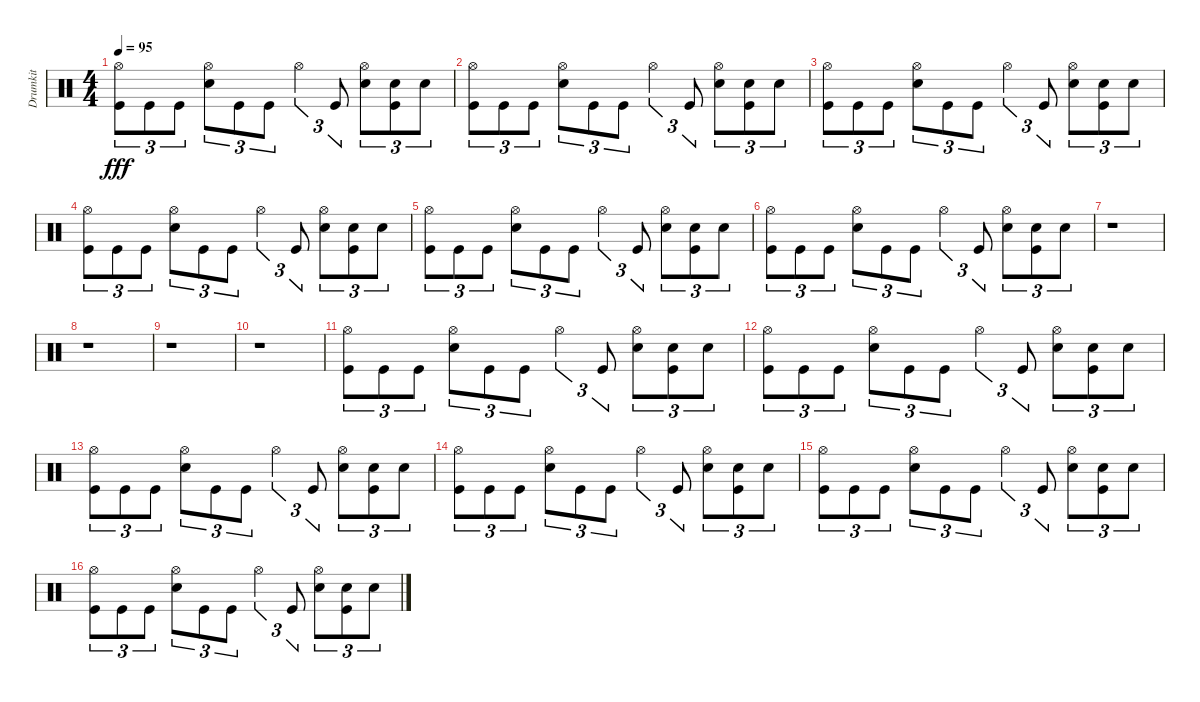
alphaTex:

\track ("Drumkit" "Drumkit") {instrument percussion}
\staff {score}
\articulation defaults
\ts (4 4)
\tempo 95
\clef neutral
\ks c
("Hi-Hat (open)" "Kick (hit)").8{tu (3 2) dy fff} "Kick (hit)".8{tu (3 2)} "Kick (hit)".8{tu (3 2)} ("Hi-Hat (open)" "Snare (hit) 2").8{tu (3 2)} "Kick (hit)".8{tu (3 2)} "Kick (hit)".8{tu (3 2)} "Hi-Hat (open)".4{tu (3 2)} "Kick (hit)".8{tu (3 2)} ("Hi-Hat (open)" "Snare (hit) 2").8{tu (3 2)} ("Snare (hit) 2" "Kick (hit)").8{tu (3 2)} "Snare (hit) 2".8{tu (3 2)} |
("Hi-Hat (open)" "Kick (hit)").8{tu (3 2)} "Kick (hit)".8{tu (3 2)} "Kick (hit)".8{tu (3 2)} ("Hi-Hat (open)" "Snare (hit) 2").8{tu (3 2)} "Kick (hit)".8{tu (3 2)} "Kick (hit)".8{tu (3 2)} "Hi-Hat (open)".4{tu (3 2)} "Kick (hit)".8{tu (3 2)} ("Hi-Hat (open)" "Snare (hit) 2").8{tu (3 2)} ("Snare (hit) 2" "Kick (hit)").8{tu (3 2)} "Snare (hit) 2".8{tu (3 2)} |
("Hi-Hat (open)" "Kick (hit)").8{tu (3 2)} "Kick (hit)".8{tu (3 2)} "Kick (hit)".8{tu (3 2)} ("Hi-Hat (open)" "Snare (hit) 2").8{tu (3 2)} "Kick (hit)".8{tu (3 2)} "Kick (hit)".8{tu (3 2)} "Hi-Hat (open)".4{tu (3 2)} "Kick (hit)".8{tu (3 2)} ("Hi-Hat (open)" "Snare (hit) 2").8{tu (3 2)} ("Snare (hit) 2" "Kick (hit)").8{tu (3 2)} "Snare (hit) 2".8{tu (3 2)} |
("Hi-Hat (open)" "Kick (hit)").8{tu (3 2)} "Kick (hit)".8{tu (3 2)} "Kick (hit)".8{tu (3 2)} ("Hi-Hat (open)" "Snare (hit) 2").8{tu (3 2)} "Kick (hit)".8{tu (3 2)} "Kick (hit)".8{tu (3 2)} "Hi-Hat (open)".4{tu (3 2)} "Kick (hit)".8{tu (3 2)} ("Hi-Hat (open)" "Snare (hit) 2").8{tu (3 2)} ("Snare (hit) 2" "Kick (hit)").8{tu (3 2)} "Snare (hit) 2".8{tu (3 2)} |
("Hi-Hat (open)" "Kick (hit)").8{tu (3 2)} "Kick (hit)".8{tu (3 2)} "Kick (hit)".8{tu (3 2)} ("Hi-Hat (open)" "Snare (hit) 2").8{tu (3 2)} "Kick (hit)".8{tu (3 2)} "Kick (hit)".8{tu (3 2)} "Hi-Hat (open)".4{tu (3 2)} "Kick (hit)".8{tu (3 2)} ("Hi-Hat (open)" "Snare (hit) 2").8{tu (3 2)} ("Snare (hit) 2" "Kick (hit)").8{tu (3 2)} "Snare (hit) 2".8{tu (3 2)} |
("Hi-Hat (open)" "Kick (hit)").8{tu (3 2)} "Kick (hit)".8{tu (3 2)} "Kick (hit)".8{tu (3 2)} ("Hi-Hat (open)" "Snare (hit) 2").8{tu (3 2)} "Kick (hit)".8{tu (3 2)} "Kick (hit)".8{tu (3 2)} "Hi-Hat (open)".4{tu (3 2)} "Kick (hit)".8{tu (3 2)} ("Hi-Hat (open)" "Snare (hit) 2").8{tu (3 2)} ("Snare (hit) 2" "Kick (hit)").8{tu (3 2)} "Snare (hit) 2".8{tu (3 2)} |
r.1 |
r.1 |
r.1 |
r.1 |
("Hi-Hat (open)" "Kick (hit)").8{tu (3 2)} "Kick (hit)".8{tu (3 2)} "Kick (hit)".8{tu (3 2)} ("Hi-Hat (open)" "Snare (hit) 2").8{tu (3 2)} "Kick (hit)".8{tu (3 2)} "Kick (hit)".8{tu (3 2)} "Hi-Hat (open)".4{tu (3 2)} "Kick (hit)".8{tu (3 2)} ("Hi-Hat (open)" "Snare (hit) 2").8{tu (3 2)} ("Snare (hit) 2" "Kick (hit)").8{tu (3 2)} "Snare (hit) 2".8{tu (3 2)} |
("Hi-Hat (open)" "Kick (hit)").8{tu (3 2)} "Kick (hit)".8{tu (3 2)} "Kick (hit)".8{tu (3 2)} ("Hi-Hat (open)" "Snare (hit) 2").8{tu (3 2)} "Kick (hit)".8{tu (3 2)} "Kick (hit)".8{tu (3 2)} "Hi-Hat (open)".4{tu (3 2)} "Kick (hit)".8{tu (3 2)} ("Hi-Hat (open)" "Snare (hit) 2").8{tu (3 2)} ("Snare (hit) 2" "Kick (hit)").8{tu (3 2)} "Snare (hit) 2".8{tu (3 2)} |
("Hi-Hat (open)" "Kick (hit)").8{tu (3 2)} "Kick (hit)".8{tu (3 2)} "Kick (hit)".8{tu (3 2)} ("Hi-Hat (open)" "Snare (hit) 2").8{tu (3 2)} "Kick (hit)".8{tu (3 2)} "Kick (hit)".8{tu (3 2)} "Hi-Hat (open)".4{tu (3 2)} "Kick (hit)".8{tu (3 2)} ("Hi-Hat (open)" "Snare (hit) 2").8{tu (3 2)} ("Snare (hit) 2" "Kick (hit)").8{tu (3 2)} "Snare (hit) 2".8{tu (3 2)} |
("Hi-Hat (open)" "Kick (hit)").8{tu (3 2)} "Kick (hit)".8{tu (3 2)} "Kick (hit)".8{tu (3 2)} ("Hi-Hat (open)" "Snare (hit) 2").8{tu (3 2)} "Kick (hit)".8{tu (3 2)} "Kick (hit)".8{tu (3 2)} "Hi-Hat (open)".4{tu (3 2)} "Kick (hit)".8{tu (3 2)} ("Hi-Hat (open)" "Snare (hit) 2").8{tu (3 2)} ("Snare (hit) 2" "Kick (hit)").8{tu (3 2)} "Snare (hit) 2".8{tu (3 2)} |
("Hi-Hat (open)" "Kick (hit)").8{tu (3 2)} "Kick (hit)".8{tu (3 2)} "Kick (hit)".8{tu (3 2)} ("Hi-Hat (open)" "Snare (hit) 2").8{tu (3 2)} "Kick (hit)".8{tu (3 2)} "Kick (hit)".8{tu (3 2)} "Hi-Hat (open)".4{tu (3 2)} "Kick (hit)".8{tu (3 2)} ("Hi-Hat (open)" "Snare (hit) 2").8{tu (3 2)} ("Snare (hit) 2" "Kick (hit)").8{tu (3 2)} "Snare (hit) 2".8{tu (3 2)} |
("Hi-Hat (open)" "Kick (hit)").8{tu (3 2)} "Kick (hit)".8{tu (3 2)} "Kick (hit)".8{tu (3 2)} ("Hi-Hat (open)" "Snare (hit) 2").8{tu (3 2)} "Kick (hit)".8{tu (3 2)} "Kick (hit)".8{tu (3 2)} "Hi-Hat (open)".4{tu (3 2)} "Kick (hit)".8{tu (3 2)} ("Hi-Hat (open)" "Snare (hit) 2").8{tu (3 2)} ("Snare (hit) 2" "Kick (hit)").8{tu (3 2)} "Snare (hit) 2".8{tu (3 2)}
